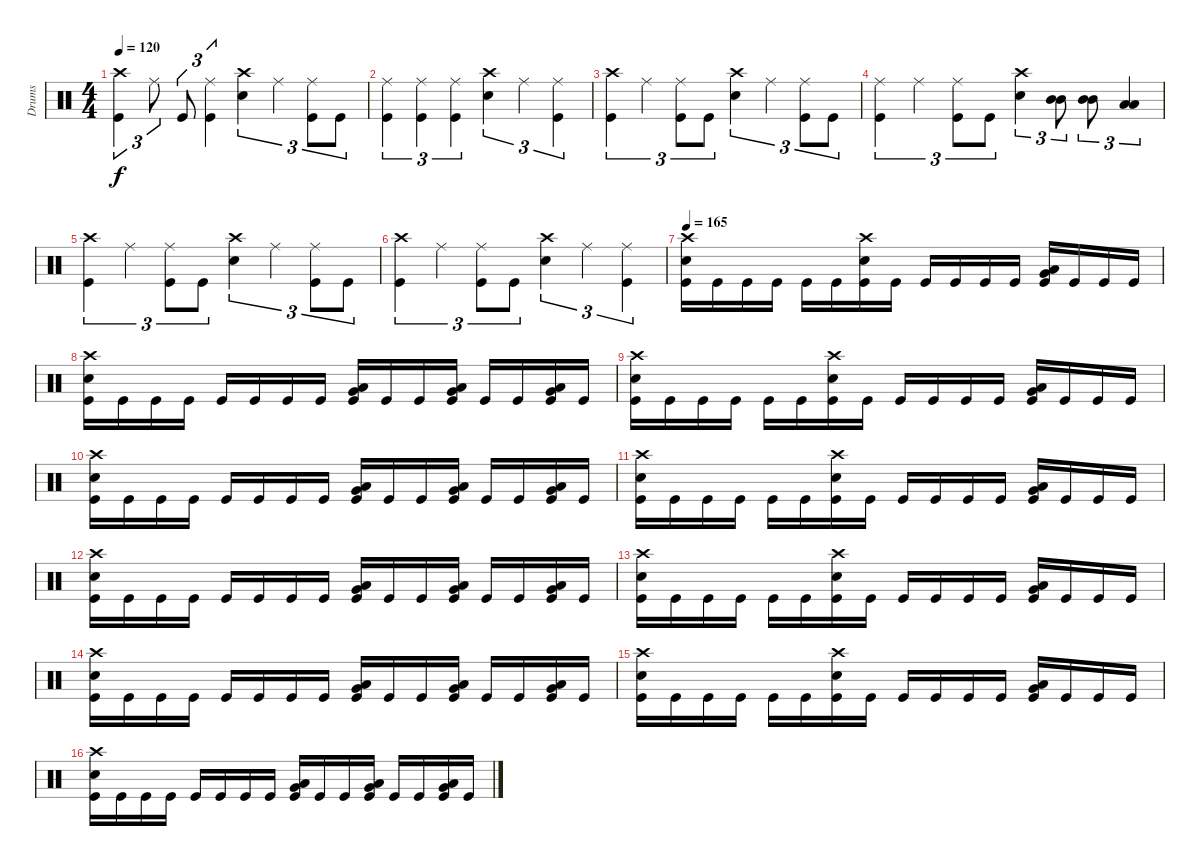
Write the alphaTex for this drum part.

\track ("Drums" "Drums") {instrument percussion}
\staff {score}
\articulation defaults
\ts (4 4)
\tempo 120
\clef neutral
\ks c
("Crash high (hit)" "Kick (hit)").4{tu (3 2) dy f} "Ride (middle)".8{tu (3 2)} "Kick (hit)".8{tu (3 2)} ("Ride (middle)" "Kick (hit)").4{tu (3 2)} ("Crash high (hit)" "Electric Snare (hit)").4{tu (3 2)} "Ride (middle)".4{tu (3 2)} ("Ride (middle)" "Kick (hit)").8{tu (3 2)} "Kick (hit)".8{tu (3 2)} |
("Ride (middle)" "Kick (hit)").4{tu (3 2)} ("Ride (middle)" "Kick (hit)").4{tu (3 2)} ("Ride (middle)" "Kick (hit)").4{tu (3 2)} ("Crash high (hit)" "Electric Snare (hit)").4{tu (3 2)} "Ride (middle)".4{tu (3 2)} ("Ride (middle)" "Kick (hit)").4{tu (3 2)} |
("Crash high (hit)" "Kick (hit)").4{tu (3 2)} "Ride (middle)".4{tu (3 2)} ("Ride (middle)" "Kick (hit)").8{tu (3 2)} "Kick (hit)".8{tu (3 2)} ("Crash high (hit)" "Electric Snare (hit)").4{tu (3 2)} "Ride (middle)".4{tu (3 2)} ("Ride (middle)" "Kick (hit)").8{tu (3 2)} "Kick (hit)".8{tu (3 2)} |
("Ride (middle)" "Kick (hit)").4{tu (3 2)} "Ride (middle)".4{tu (3 2)} ("Ride (middle)" "Kick (hit)").8{tu (3 2)} "Kick (hit)".8{tu (3 2)} ("Crash high (hit)" "Electric Snare (hit)").4{tu (3 2)} ("Mid Tom (hit)" "Mid Tom (hit)").8{tu (3 2)} ("Mid Tom (hit)" "Mid Tom (hit)").8{tu (3 2)} ("Low Tom (hit)" "Low Tom (hit)").4{tu (3 2)} |
("Crash high (hit)" "Kick (hit)").4{tu (3 2)} "Ride (middle)".4{tu (3 2)} ("Ride (middle)" "Kick (hit)").8{tu (3 2)} "Kick (hit)".8{tu (3 2)} ("Crash high (hit)" "Electric Snare (hit)").4{tu (3 2)} "Ride (middle)".4{tu (3 2)} ("Ride (middle)" "Kick (hit)").8{tu (3 2)} "Kick (hit)".8{tu (3 2)} |
("Crash high (hit)" "Kick (hit)").4{tu (3 2)} "Ride (middle)".4{tu (3 2)} ("Ride (middle)" "Kick (hit)").8{tu (3 2)} "Kick (hit)".8{tu (3 2)} ("Crash high (hit)" "Electric Snare (hit)").4{tu (3 2)} "Ride (middle)".4{tu (3 2)} ("Ride (middle)" "Kick (hit)").4{tu (3 2)} |
\tempo 165
("Crash high (hit)" "Electric Snare (hit)" "Kick (hit)").16 "Kick (hit)".16 "Kick (hit)".16 "Kick (hit)".16 "Kick (hit)".16 "Kick (hit)".16 ("Crash high (hit)" "Electric Snare (hit)" "Kick (hit)").16 "Kick (hit)".16 "Kick (hit)".16 "Kick (hit)".16 "Kick (hit)".16 "Kick (hit)".16 ("Low Tom (hit)" "Very Low Tom (hit)" "Kick (hit)").16 "Kick (hit)".16 "Kick (hit)".16 "Kick (hit)".16 |
("Crash high (hit)" "Electric Snare (hit)" "Kick (hit)").16 "Kick (hit)".16 "Kick (hit)".16 "Kick (hit)".16 "Kick (hit)".16 "Kick (hit)".16 "Kick (hit)".16 "Kick (hit)".16 ("Low Tom (hit)" "Very Low Tom (hit)" "Kick (hit)").16 "Kick (hit)".16 "Kick (hit)".16 ("Low Tom (hit)" "Very Low Tom (hit)" "Kick (hit)").16 "Kick (hit)".16 "Kick (hit)".16 ("Low Tom (hit)" "Very Low Tom (hit)" "Kick (hit)").16 "Kick (hit)".16 |
("Crash high (hit)" "Electric Snare (hit)" "Kick (hit)").16 "Kick (hit)".16 "Kick (hit)".16 "Kick (hit)".16 "Kick (hit)".16 "Kick (hit)".16 ("Crash high (hit)" "Electric Snare (hit)" "Kick (hit)").16 "Kick (hit)".16 "Kick (hit)".16 "Kick (hit)".16 "Kick (hit)".16 "Kick (hit)".16 ("Low Tom (hit)" "Very Low Tom (hit)" "Kick (hit)").16 "Kick (hit)".16 "Kick (hit)".16 "Kick (hit)".16 |
("Crash high (hit)" "Electric Snare (hit)" "Kick (hit)").16 "Kick (hit)".16 "Kick (hit)".16 "Kick (hit)".16 "Kick (hit)".16 "Kick (hit)".16 "Kick (hit)".16 "Kick (hit)".16 ("Low Tom (hit)" "Very Low Tom (hit)" "Kick (hit)").16 "Kick (hit)".16 "Kick (hit)".16 ("Low Tom (hit)" "Very Low Tom (hit)" "Kick (hit)").16 "Kick (hit)".16 "Kick (hit)".16 ("Low Tom (hit)" "Very Low Tom (hit)" "Kick (hit)").16 "Kick (hit)".16 |
("Crash high (hit)" "Electric Snare (hit)" "Kick (hit)").16 "Kick (hit)".16 "Kick (hit)".16 "Kick (hit)".16 "Kick (hit)".16 "Kick (hit)".16 ("Crash high (hit)" "Electric Snare (hit)" "Kick (hit)").16 "Kick (hit)".16 "Kick (hit)".16 "Kick (hit)".16 "Kick (hit)".16 "Kick (hit)".16 ("Low Tom (hit)" "Very Low Tom (hit)" "Kick (hit)").16 "Kick (hit)".16 "Kick (hit)".16 "Kick (hit)".16 |
("Crash high (hit)" "Electric Snare (hit)" "Kick (hit)").16 "Kick (hit)".16 "Kick (hit)".16 "Kick (hit)".16 "Kick (hit)".16 "Kick (hit)".16 "Kick (hit)".16 "Kick (hit)".16 ("Low Tom (hit)" "Very Low Tom (hit)" "Kick (hit)").16 "Kick (hit)".16 "Kick (hit)".16 ("Low Tom (hit)" "Very Low Tom (hit)" "Kick (hit)").16 "Kick (hit)".16 "Kick (hit)".16 ("Low Tom (hit)" "Very Low Tom (hit)" "Kick (hit)").16 "Kick (hit)".16 |
("Crash high (hit)" "Electric Snare (hit)" "Kick (hit)").16 "Kick (hit)".16 "Kick (hit)".16 "Kick (hit)".16 "Kick (hit)".16 "Kick (hit)".16 ("Crash high (hit)" "Electric Snare (hit)" "Kick (hit)").16 "Kick (hit)".16 "Kick (hit)".16 "Kick (hit)".16 "Kick (hit)".16 "Kick (hit)".16 ("Low Tom (hit)" "Very Low Tom (hit)" "Kick (hit)").16 "Kick (hit)".16 "Kick (hit)".16 "Kick (hit)".16 |
("Crash high (hit)" "Electric Snare (hit)" "Kick (hit)").16 "Kick (hit)".16 "Kick (hit)".16 "Kick (hit)".16 "Kick (hit)".16 "Kick (hit)".16 "Kick (hit)".16 "Kick (hit)".16 ("Low Tom (hit)" "Very Low Tom (hit)" "Kick (hit)").16 "Kick (hit)".16 "Kick (hit)".16 ("Low Tom (hit)" "Very Low Tom (hit)" "Kick (hit)").16 "Kick (hit)".16 "Kick (hit)".16 ("Low Tom (hit)" "Very Low Tom (hit)" "Kick (hit)").16 "Kick (hit)".16 |
("Crash high (hit)" "Electric Snare (hit)" "Kick (hit)").16 "Kick (hit)".16 "Kick (hit)".16 "Kick (hit)".16 "Kick (hit)".16 "Kick (hit)".16 ("Crash high (hit)" "Electric Snare (hit)" "Kick (hit)").16 "Kick (hit)".16 "Kick (hit)".16 "Kick (hit)".16 "Kick (hit)".16 "Kick (hit)".16 ("Low Tom (hit)" "Very Low Tom (hit)" "Kick (hit)").16 "Kick (hit)".16 "Kick (hit)".16 "Kick (hit)".16 |
("Crash high (hit)" "Electric Snare (hit)" "Kick (hit)").16 "Kick (hit)".16 "Kick (hit)".16 "Kick (hit)".16 "Kick (hit)".16 "Kick (hit)".16 "Kick (hit)".16 "Kick (hit)".16 ("Low Tom (hit)" "Very Low Tom (hit)" "Kick (hit)").16 "Kick (hit)".16 "Kick (hit)".16 ("Low Tom (hit)" "Very Low Tom (hit)" "Kick (hit)").16 "Kick (hit)".16 "Kick (hit)".16 ("Low Tom (hit)" "Very Low Tom (hit)" "Kick (hit)").16 "Kick (hit)".16
